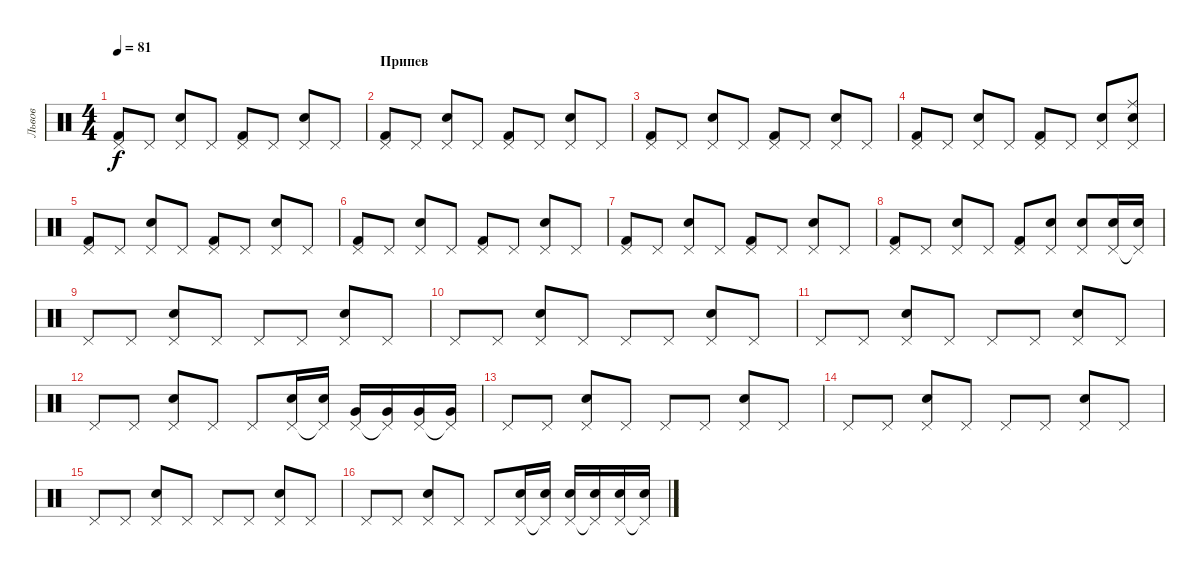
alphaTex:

\track ("Львов" "Львов") {instrument percussion}
\staff {score}
\articulation defaults
\ts (4 4)
\tempo 81
\clef neutral
\ks c
("Pedal Hi-Hat (hit)" "Kick (hit) 2").8{dy f} "Pedal Hi-Hat (hit)".8 ("Pedal Hi-Hat (hit)" "Snare (hit) 2").8 "Pedal Hi-Hat (hit)".8 ("Pedal Hi-Hat (hit)" "Kick (hit) 2").8 "Pedal Hi-Hat (hit)".8 ("Pedal Hi-Hat (hit)" "Snare (hit) 2").8 "Pedal Hi-Hat (hit)".8 |
\section ("" "Припев")
("Pedal Hi-Hat (hit)" "Kick (hit) 2").8 "Pedal Hi-Hat (hit)".8 ("Pedal Hi-Hat (hit)" "Snare (hit) 2").8 "Pedal Hi-Hat (hit)".8 ("Pedal Hi-Hat (hit)" "Kick (hit) 2").8 "Pedal Hi-Hat (hit)".8 ("Pedal Hi-Hat (hit)" "Snare (hit) 2").8 "Pedal Hi-Hat (hit)".8 |
("Pedal Hi-Hat (hit)" "Kick (hit) 2").8 "Pedal Hi-Hat (hit)".8 ("Pedal Hi-Hat (hit)" "Snare (hit) 2").8 "Pedal Hi-Hat (hit)".8 ("Pedal Hi-Hat (hit)" "Kick (hit) 2").8 "Pedal Hi-Hat (hit)".8 ("Pedal Hi-Hat (hit)" "Snare (hit) 2").8 "Pedal Hi-Hat (hit)".8 |
("Pedal Hi-Hat (hit)" "Kick (hit) 2").8 "Pedal Hi-Hat (hit)".8 ("Pedal Hi-Hat (hit)" "Snare (hit) 2").8 "Pedal Hi-Hat (hit)".8 ("Pedal Hi-Hat (hit)" "Kick (hit) 2").8 "Pedal Hi-Hat (hit)".8 ("Pedal Hi-Hat (hit)" "Snare (hit) 2").8 ("Pedal Hi-Hat (hit)" "Ride (middle)" "Snare (hit) 2").8 |
("Pedal Hi-Hat (hit)" "Kick (hit) 2").8 "Pedal Hi-Hat (hit)".8 ("Pedal Hi-Hat (hit)" "Snare (hit) 2").8 "Pedal Hi-Hat (hit)".8 ("Pedal Hi-Hat (hit)" "Kick (hit) 2").8 "Pedal Hi-Hat (hit)".8 ("Pedal Hi-Hat (hit)" "Snare (hit) 2").8 "Pedal Hi-Hat (hit)".8 |
("Pedal Hi-Hat (hit)" "Kick (hit) 2").8 "Pedal Hi-Hat (hit)".8 ("Pedal Hi-Hat (hit)" "Snare (hit) 2").8 "Pedal Hi-Hat (hit)".8 ("Pedal Hi-Hat (hit)" "Kick (hit) 2").8 "Pedal Hi-Hat (hit)".8 ("Pedal Hi-Hat (hit)" "Snare (hit) 2").8 "Pedal Hi-Hat (hit)".8 |
("Pedal Hi-Hat (hit)" "Kick (hit) 2").8 "Pedal Hi-Hat (hit)".8 ("Pedal Hi-Hat (hit)" "Snare (hit) 2").8 "Pedal Hi-Hat (hit)".8 ("Pedal Hi-Hat (hit)" "Kick (hit) 2").8 "Pedal Hi-Hat (hit)".8 ("Pedal Hi-Hat (hit)" "Snare (hit) 2").8 "Pedal Hi-Hat (hit)".8 |
("Pedal Hi-Hat (hit)" "Kick (hit) 2").8 "Pedal Hi-Hat (hit)".8 ("Pedal Hi-Hat (hit)" "Snare (hit) 2").8 "Pedal Hi-Hat (hit)".8 ("Pedal Hi-Hat (hit)" "Kick (hit) 2").8 ("Pedal Hi-Hat (hit)" "Snare (hit) 2").8 ("Pedal Hi-Hat (hit)" "Snare (hit) 2").8 ("Pedal Hi-Hat (hit)" "Snare (hit) 2").16 ("Pedal Hi-Hat (hit)"{t} "Snare (hit) 2").16 |
"Pedal Hi-Hat (hit)".8 "Pedal Hi-Hat (hit)".8 ("Pedal Hi-Hat (hit)" "Snare (hit) 2").8 "Pedal Hi-Hat (hit)".8 "Pedal Hi-Hat (hit)".8 "Pedal Hi-Hat (hit)".8 ("Pedal Hi-Hat (hit)" "Snare (hit) 2").8 "Pedal Hi-Hat (hit)".8 |
"Pedal Hi-Hat (hit)".8 "Pedal Hi-Hat (hit)".8 ("Pedal Hi-Hat (hit)" "Snare (hit) 2").8 "Pedal Hi-Hat (hit)".8 "Pedal Hi-Hat (hit)".8 "Pedal Hi-Hat (hit)".8 ("Pedal Hi-Hat (hit)" "Snare (hit) 2").8 "Pedal Hi-Hat (hit)".8 |
"Pedal Hi-Hat (hit)".8 "Pedal Hi-Hat (hit)".8 ("Pedal Hi-Hat (hit)" "Snare (hit) 2").8 "Pedal Hi-Hat (hit)".8 "Pedal Hi-Hat (hit)".8 "Pedal Hi-Hat (hit)".8 ("Pedal Hi-Hat (hit)" "Snare (hit) 2").8 "Pedal Hi-Hat (hit)".8 |
"Pedal Hi-Hat (hit)".8 "Pedal Hi-Hat (hit)".8 ("Pedal Hi-Hat (hit)" "Snare (hit) 2").8 "Pedal Hi-Hat (hit)".8 "Pedal Hi-Hat (hit)".8 ("Pedal Hi-Hat (hit)" "Electric Snare (hit)").16 ("Pedal Hi-Hat (hit)"{t} "Electric Snare (hit)").16 ("Pedal Hi-Hat (hit)" "Very Low Tom (hit)").16 ("Pedal Hi-Hat (hit)"{t} "Very Low Tom (hit)").16 ("Pedal Hi-Hat (hit)" "Very Low Tom (hit)").16 ("Pedal Hi-Hat (hit)"{t} "Very Low Tom (hit)").16 |
"Pedal Hi-Hat (hit)".8 "Pedal Hi-Hat (hit)".8 ("Pedal Hi-Hat (hit)" "Snare (hit) 2").8 "Pedal Hi-Hat (hit)".8 "Pedal Hi-Hat (hit)".8 "Pedal Hi-Hat (hit)".8 ("Pedal Hi-Hat (hit)" "Snare (hit) 2").8 "Pedal Hi-Hat (hit)".8 |
"Pedal Hi-Hat (hit)".8 "Pedal Hi-Hat (hit)".8 ("Pedal Hi-Hat (hit)" "Snare (hit) 2").8 "Pedal Hi-Hat (hit)".8 "Pedal Hi-Hat (hit)".8 "Pedal Hi-Hat (hit)".8 ("Pedal Hi-Hat (hit)" "Snare (hit) 2").8 "Pedal Hi-Hat (hit)".8 |
"Pedal Hi-Hat (hit)".8 "Pedal Hi-Hat (hit)".8 ("Pedal Hi-Hat (hit)" "Snare (hit) 2").8 "Pedal Hi-Hat (hit)".8 "Pedal Hi-Hat (hit)".8 "Pedal Hi-Hat (hit)".8 ("Pedal Hi-Hat (hit)" "Snare (hit) 2").8 "Pedal Hi-Hat (hit)".8 |
"Pedal Hi-Hat (hit)".8 "Pedal Hi-Hat (hit)".8 ("Pedal Hi-Hat (hit)" "Snare (hit) 2").8 "Pedal Hi-Hat (hit)".8 "Pedal Hi-Hat (hit)".8 ("Pedal Hi-Hat (hit)" "Snare (hit) 2").16 ("Pedal Hi-Hat (hit)"{t} "Snare (hit) 2").16 ("Pedal Hi-Hat (hit)" "Electric Snare (hit)").16 ("Pedal Hi-Hat (hit)"{t} "Electric Snare (hit)").16 ("Pedal Hi-Hat (hit)" "Electric Snare (hit)").16 ("Pedal Hi-Hat (hit)"{t} "Electric Snare (hit)").16
